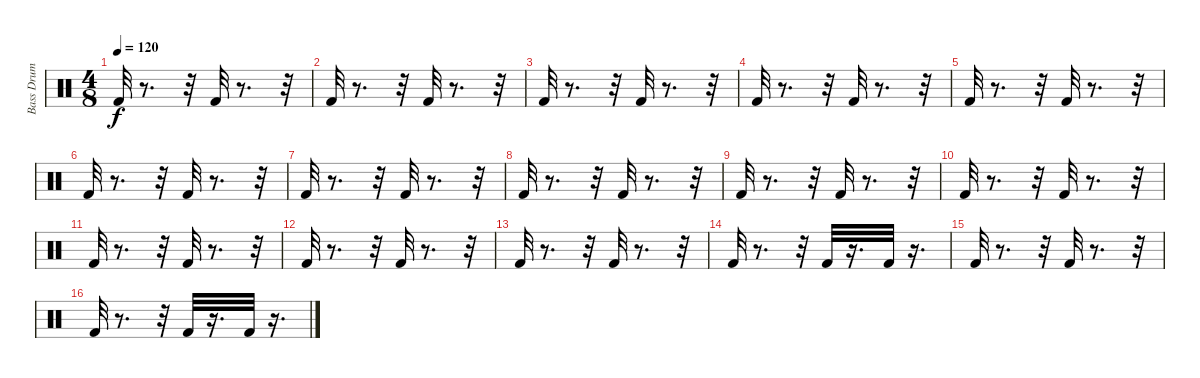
\track ("Bass Drum" "Bass Drum") {instrument percussion}
\staff {score}
\articulation defaults
\ts (4 8)
\tempo 120
\clef neutral
\ks c "Kick (hit) 2".32{dy f}
r.8{d} r.32 "Kick (hit) 2".32 r.8{d} r.32 |
"Kick (hit) 2".32 r.8{d} r.32 "Kick (hit) 2".32 r.8{d} r.32 |
"Kick (hit) 2".32 r.8{d} r.32 "Kick (hit) 2".32 r.8{d} r.32 |
"Kick (hit) 2".32 r.8{d} r.32 "Kick (hit) 2".32 r.8{d} r.32 |
"Kick (hit) 2".32 r.8{d} r.32 "Kick (hit) 2".32 r.8{d} r.32 |
"Kick (hit) 2".32 r.8{d} r.32 "Kick (hit) 2".32 r.8{d} r.32 |
"Kick (hit) 2".32 r.8{d} r.32 "Kick (hit) 2".32 r.8{d} r.32 |
"Kick (hit) 2".32 r.8{d} r.32 "Kick (hit) 2".32 r.8{d} r.32 |
"Kick (hit) 2".32 r.8{d} r.32 "Kick (hit) 2".32 r.8{d} r.32 |
"Kick (hit) 2".32 r.8{d} r.32 "Kick (hit) 2".32 r.8{d} r.32 |
"Kick (hit) 2".32 r.8{d} r.32 "Kick (hit) 2".32 r.8{d} r.32 |
"Kick (hit) 2".32 r.8{d} r.32 "Kick (hit) 2".32 r.8{d} r.32 |
"Kick (hit) 2".32 r.8{d} r.32 "Kick (hit) 2".32 r.8{d} r.32 |
"Kick (hit) 2".32 r.8{d} r.32 "Kick (hit) 2".32 r.16{d} "Kick (hit) 2".32 r.16{d} |
"Kick (hit) 2".32 r.8{d} r.32 "Kick (hit) 2".32 r.8{d} r.32 |
"Kick (hit) 2".32 r.8{d} r.32 "Kick (hit) 2".32 r.16{d} "Kick (hit) 2".32 r.16{d}
